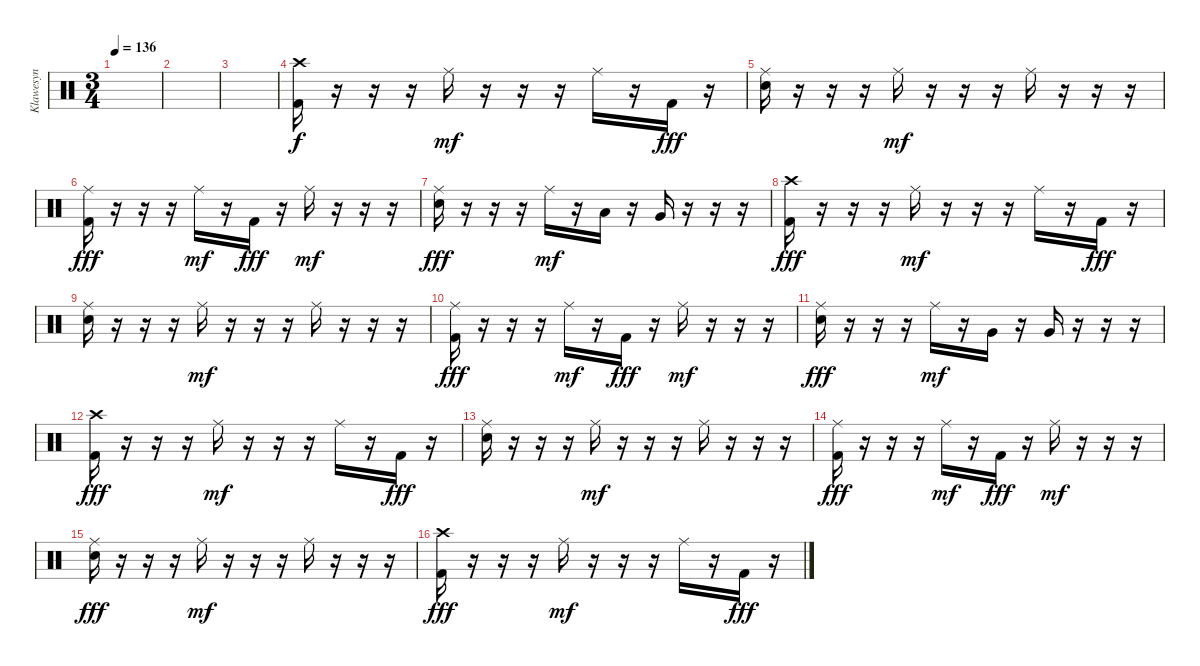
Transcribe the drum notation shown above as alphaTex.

\track ("Klawesyn" "Klawesyn") {instrument percussion}
\staff {score}
\articulation defaults
\ts (3 4)
\tempo 136
\clef neutral
\ks c
|
|
|
("Crash high (hit)" "Kick (hit) 2").16 r.16 r.16 r.16 "Ride (middle)".16{dy mf} r.16 r.16 r.16 "Ride (middle)".16 r.16 "Kick (hit) 2".16{dy fff} r.16 |
("Ride (middle)" "Snare (hit) 2").16 r.16 r.16 r.16 "Ride (middle)".16{dy mf} r.16 r.16 r.16 "Ride (middle)".16 r.16 r.16 r.16 |
("Ride (middle)" "Kick (hit) 2").16{dy fff} r.16 r.16 r.16 "Ride (middle)".16{dy mf} r.16 "Kick (hit) 2".16{dy fff} r.16 "Ride (middle)".16{dy mf} r.16 r.16 r.16 |
("Ride (middle)" "Snare (hit) 2").16{dy fff} r.16 r.16 r.16 "Ride (middle)".16{dy mf} r.16 "Low Tom (hit)".16 r.16 "Very Low Tom (hit)".16 r.16 r.16 r.16 |
("Crash high (hit)" "Kick (hit) 2").16{dy fff} r.16 r.16 r.16 "Ride (middle)".16{dy mf} r.16 r.16 r.16 "Ride (middle)".16 r.16 "Kick (hit) 2".16{dy fff} r.16 |
("Ride (middle)" "Snare (hit) 2").16 r.16 r.16 r.16 "Ride (middle)".16{dy mf} r.16 r.16 r.16 "Ride (middle)".16 r.16 r.16 r.16 |
("Ride (middle)" "Kick (hit) 2").16{dy fff} r.16 r.16 r.16 "Ride (middle)".16{dy mf} r.16 "Kick (hit) 2".16{dy fff} r.16 "Ride (middle)".16{dy mf} r.16 r.16 r.16 |
("Ride (middle)" "Snare (hit) 2").16{dy fff} r.16 r.16 r.16 "Ride (middle)".16{dy mf} r.16 "Very Low Tom (hit)".16 r.16 "Very Low Tom (hit)".16 r.16 r.16 r.16 |
("Crash high (hit)" "Kick (hit) 2").16{dy fff} r.16 r.16 r.16 "Ride (middle)".16{dy mf} r.16 r.16 r.16 "Ride (middle)".16 r.16 "Kick (hit) 2".16{dy fff} r.16 |
("Ride (middle)" "Snare (hit) 2").16 r.16 r.16 r.16 "Ride (middle)".16{dy mf} r.16 r.16 r.16 "Ride (middle)".16 r.16 r.16 r.16 |
("Ride (middle)" "Kick (hit) 2").16{dy fff} r.16 r.16 r.16 "Ride (middle)".16{dy mf} r.16 "Kick (hit) 2".16{dy fff} r.16 "Ride (middle)".16{dy mf} r.16 r.16 r.16 |
("Ride (middle)" "Snare (hit) 2").16{dy fff} r.16 r.16 r.16 "Ride (middle)".16{dy mf} r.16 r.16 r.16 "Ride (middle)".16 r.16 r.16 r.16 |
("Crash high (hit)" "Kick (hit) 2").16{dy fff} r.16 r.16 r.16 "Ride (middle)".16{dy mf} r.16 r.16 r.16 "Ride (middle)".16 r.16 "Kick (hit) 2".16{dy fff} r.16
